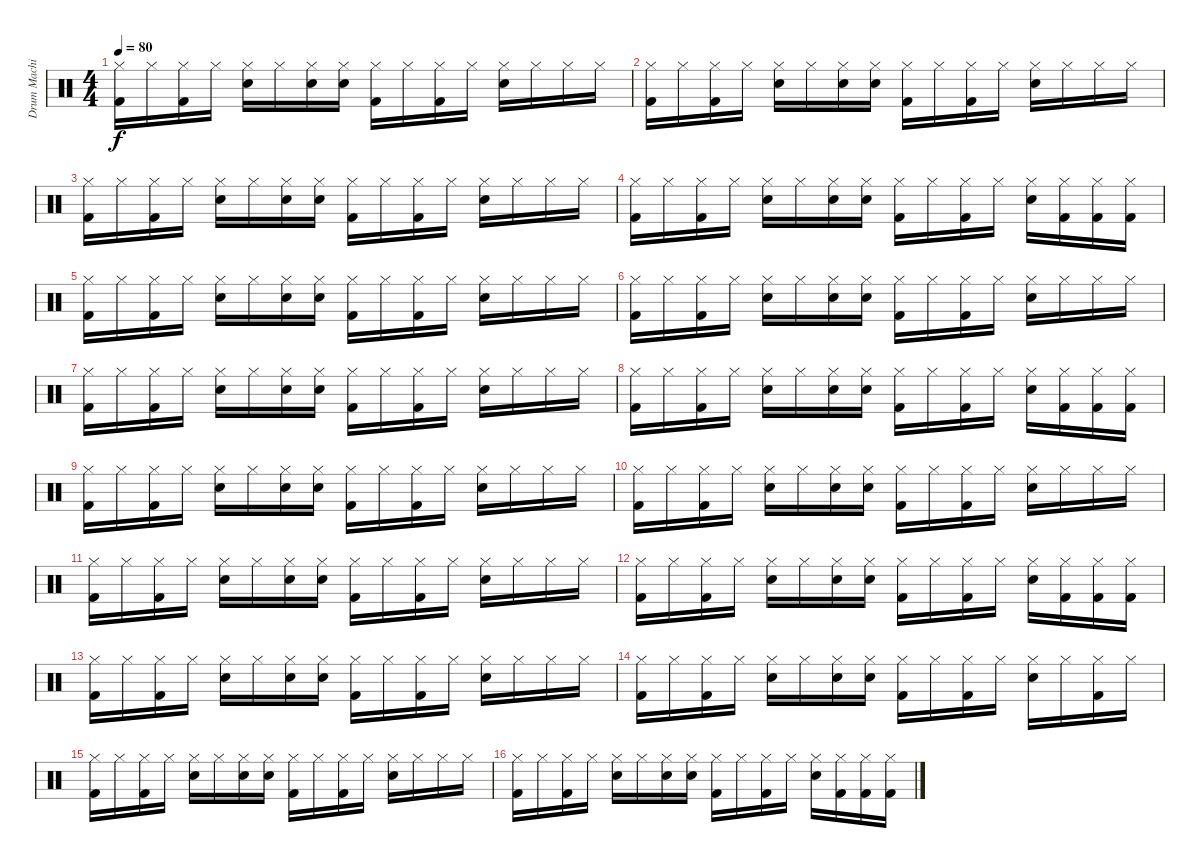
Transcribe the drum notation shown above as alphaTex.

\track ("Drum Machine" "Drum Machi") {instrument percussion}
\staff {score}
\articulation defaults
\ts (4 4)
\tempo 80
\clef neutral
\ks c
("Hi-Hat (closed)" "Kick (hit) 2").16{dy f} "Hi-Hat (closed)".16 ("Hi-Hat (closed)" "Kick (hit) 2").16 "Hi-Hat (closed)".16 ("Hi-Hat (closed)" "Electric Snare (hit)").16 "Hi-Hat (closed)".16 ("Hi-Hat (closed)" "Electric Snare (hit)").16 ("Hi-Hat (closed)" "Electric Snare (hit)").16 ("Hi-Hat (closed)" "Kick (hit) 2").16 "Hi-Hat (closed)".16 ("Hi-Hat (closed)" "Kick (hit) 2").16 "Hi-Hat (closed)".16 ("Hi-Hat (closed)" "Electric Snare (hit)").16 "Hi-Hat (closed)".16 "Hi-Hat (closed)".16 "Hi-Hat (closed)".16 |
("Hi-Hat (closed)" "Kick (hit) 2").16 "Hi-Hat (closed)".16 ("Hi-Hat (closed)" "Kick (hit) 2").16 "Hi-Hat (closed)".16 ("Hi-Hat (closed)" "Electric Snare (hit)").16 "Hi-Hat (closed)".16 ("Hi-Hat (closed)" "Electric Snare (hit)").16 ("Hi-Hat (closed)" "Electric Snare (hit)").16 ("Hi-Hat (closed)" "Kick (hit) 2").16 "Hi-Hat (closed)".16 ("Hi-Hat (closed)" "Kick (hit) 2").16 "Hi-Hat (closed)".16 ("Hi-Hat (closed)" "Electric Snare (hit)").16 "Hi-Hat (closed)".16 "Hi-Hat (closed)".16 "Hi-Hat (closed)".16 |
("Hi-Hat (closed)" "Kick (hit) 2").16 "Hi-Hat (closed)".16 ("Hi-Hat (closed)" "Kick (hit) 2").16 "Hi-Hat (closed)".16 ("Hi-Hat (closed)" "Electric Snare (hit)").16 "Hi-Hat (closed)".16 ("Hi-Hat (closed)" "Electric Snare (hit)").16 ("Hi-Hat (closed)" "Electric Snare (hit)").16 ("Hi-Hat (closed)" "Kick (hit) 2").16 "Hi-Hat (closed)".16 ("Hi-Hat (closed)" "Kick (hit) 2").16 "Hi-Hat (closed)".16 ("Hi-Hat (closed)" "Electric Snare (hit)").16 "Hi-Hat (closed)".16 "Hi-Hat (closed)".16 "Hi-Hat (closed)".16 |
("Hi-Hat (closed)" "Kick (hit) 2").16 "Hi-Hat (closed)".16 ("Hi-Hat (closed)" "Kick (hit) 2").16 "Hi-Hat (closed)".16 ("Hi-Hat (closed)" "Electric Snare (hit)").16 "Hi-Hat (closed)".16 ("Hi-Hat (closed)" "Electric Snare (hit)").16 ("Hi-Hat (closed)" "Electric Snare (hit)").16 ("Hi-Hat (closed)" "Kick (hit) 2").16 "Hi-Hat (closed)".16 ("Hi-Hat (closed)" "Kick (hit) 2").16 "Hi-Hat (closed)".16 ("Hi-Hat (closed)" "Electric Snare (hit)").16 ("Hi-Hat (closed)" "Kick (hit) 2").16 ("Hi-Hat (closed)" "Kick (hit) 2").16 ("Hi-Hat (closed)" "Kick (hit) 2").16 |
("Hi-Hat (closed)" "Kick (hit) 2").16 "Hi-Hat (closed)".16 ("Hi-Hat (closed)" "Kick (hit) 2").16 "Hi-Hat (closed)".16 ("Hi-Hat (closed)" "Electric Snare (hit)").16 "Hi-Hat (closed)".16 ("Hi-Hat (closed)" "Electric Snare (hit)").16 ("Hi-Hat (closed)" "Electric Snare (hit)").16 ("Hi-Hat (closed)" "Kick (hit) 2").16 "Hi-Hat (closed)".16 ("Hi-Hat (closed)" "Kick (hit) 2").16 "Hi-Hat (closed)".16 ("Hi-Hat (closed)" "Electric Snare (hit)").16 "Hi-Hat (closed)".16 "Hi-Hat (closed)".16 "Hi-Hat (closed)".16 |
("Hi-Hat (closed)" "Kick (hit) 2").16 "Hi-Hat (closed)".16 ("Hi-Hat (closed)" "Kick (hit) 2").16 "Hi-Hat (closed)".16 ("Hi-Hat (closed)" "Electric Snare (hit)").16 "Hi-Hat (closed)".16 ("Hi-Hat (closed)" "Electric Snare (hit)").16 ("Hi-Hat (closed)" "Electric Snare (hit)").16 ("Hi-Hat (closed)" "Kick (hit) 2").16 "Hi-Hat (closed)".16 ("Hi-Hat (closed)" "Kick (hit) 2").16 "Hi-Hat (closed)".16 ("Hi-Hat (closed)" "Electric Snare (hit)").16 "Hi-Hat (closed)".16 "Hi-Hat (closed)".16 "Hi-Hat (closed)".16 |
("Hi-Hat (closed)" "Kick (hit) 2").16 "Hi-Hat (closed)".16 ("Hi-Hat (closed)" "Kick (hit) 2").16 "Hi-Hat (closed)".16 ("Hi-Hat (closed)" "Electric Snare (hit)").16 "Hi-Hat (closed)".16 ("Hi-Hat (closed)" "Electric Snare (hit)").16 ("Hi-Hat (closed)" "Electric Snare (hit)").16 ("Hi-Hat (closed)" "Kick (hit) 2").16 "Hi-Hat (closed)".16 ("Hi-Hat (closed)" "Kick (hit) 2").16 "Hi-Hat (closed)".16 ("Hi-Hat (closed)" "Electric Snare (hit)").16 "Hi-Hat (closed)".16 "Hi-Hat (closed)".16 "Hi-Hat (closed)".16 |
("Hi-Hat (closed)" "Kick (hit) 2").16 "Hi-Hat (closed)".16 ("Hi-Hat (closed)" "Kick (hit) 2").16 "Hi-Hat (closed)".16 ("Hi-Hat (closed)" "Electric Snare (hit)").16 "Hi-Hat (closed)".16 ("Hi-Hat (closed)" "Electric Snare (hit)").16 ("Hi-Hat (closed)" "Electric Snare (hit)").16 ("Hi-Hat (closed)" "Kick (hit) 2").16 "Hi-Hat (closed)".16 ("Hi-Hat (closed)" "Kick (hit) 2").16 "Hi-Hat (closed)".16 ("Hi-Hat (closed)" "Electric Snare (hit)").16 ("Hi-Hat (closed)" "Kick (hit) 2").16 ("Hi-Hat (closed)" "Kick (hit) 2").16 ("Hi-Hat (closed)" "Kick (hit) 2").16 |
("Hi-Hat (closed)" "Kick (hit) 2").16 "Hi-Hat (closed)".16 ("Hi-Hat (closed)" "Kick (hit) 2").16 "Hi-Hat (closed)".16 ("Hi-Hat (closed)" "Electric Snare (hit)").16 "Hi-Hat (closed)".16 ("Hi-Hat (closed)" "Electric Snare (hit)").16 ("Hi-Hat (closed)" "Electric Snare (hit)").16 ("Hi-Hat (closed)" "Kick (hit) 2").16 "Hi-Hat (closed)".16 ("Hi-Hat (closed)" "Kick (hit) 2").16 "Hi-Hat (closed)".16 ("Hi-Hat (closed)" "Electric Snare (hit)").16 "Hi-Hat (closed)".16 "Hi-Hat (closed)".16 "Hi-Hat (closed)".16 |
("Hi-Hat (closed)" "Kick (hit) 2").16 "Hi-Hat (closed)".16 ("Hi-Hat (closed)" "Kick (hit) 2").16 "Hi-Hat (closed)".16 ("Hi-Hat (closed)" "Electric Snare (hit)").16 "Hi-Hat (closed)".16 ("Hi-Hat (closed)" "Electric Snare (hit)").16 ("Hi-Hat (closed)" "Electric Snare (hit)").16 ("Hi-Hat (closed)" "Kick (hit) 2").16 "Hi-Hat (closed)".16 ("Hi-Hat (closed)" "Kick (hit) 2").16 "Hi-Hat (closed)".16 ("Hi-Hat (closed)" "Electric Snare (hit)").16 "Hi-Hat (closed)".16 "Hi-Hat (closed)".16 "Hi-Hat (closed)".16 |
("Hi-Hat (closed)" "Kick (hit) 2").16 "Hi-Hat (closed)".16 ("Hi-Hat (closed)" "Kick (hit) 2").16 "Hi-Hat (closed)".16 ("Hi-Hat (closed)" "Electric Snare (hit)").16 "Hi-Hat (closed)".16 ("Hi-Hat (closed)" "Electric Snare (hit)").16 ("Hi-Hat (closed)" "Electric Snare (hit)").16 ("Hi-Hat (closed)" "Kick (hit) 2").16 "Hi-Hat (closed)".16 ("Hi-Hat (closed)" "Kick (hit) 2").16 "Hi-Hat (closed)".16 ("Hi-Hat (closed)" "Electric Snare (hit)").16 "Hi-Hat (closed)".16 "Hi-Hat (closed)".16 "Hi-Hat (closed)".16 |
("Hi-Hat (closed)" "Kick (hit) 2").16 "Hi-Hat (closed)".16 ("Hi-Hat (closed)" "Kick (hit) 2").16 "Hi-Hat (closed)".16 ("Hi-Hat (closed)" "Electric Snare (hit)").16 "Hi-Hat (closed)".16 ("Hi-Hat (closed)" "Electric Snare (hit)").16 ("Hi-Hat (closed)" "Electric Snare (hit)").16 ("Hi-Hat (closed)" "Kick (hit) 2").16 "Hi-Hat (closed)".16 ("Hi-Hat (closed)" "Kick (hit) 2").16 "Hi-Hat (closed)".16 ("Hi-Hat (closed)" "Electric Snare (hit)").16 ("Hi-Hat (closed)" "Kick (hit) 2").16 ("Hi-Hat (closed)" "Kick (hit) 2").16 ("Hi-Hat (closed)" "Kick (hit) 2").16 |
("Hi-Hat (closed)" "Kick (hit) 2").16 "Hi-Hat (closed)".16 ("Hi-Hat (closed)" "Kick (hit) 2").16 "Hi-Hat (closed)".16 ("Hi-Hat (closed)" "Electric Snare (hit)").16 "Hi-Hat (closed)".16 ("Hi-Hat (closed)" "Electric Snare (hit)").16 ("Hi-Hat (closed)" "Electric Snare (hit)").16 ("Hi-Hat (closed)" "Kick (hit) 2").16 "Hi-Hat (closed)".16 ("Hi-Hat (closed)" "Kick (hit) 2").16 "Hi-Hat (closed)".16 ("Hi-Hat (closed)" "Electric Snare (hit)").16 "Hi-Hat (closed)".16 "Hi-Hat (closed)".16 "Hi-Hat (closed)".16 |
("Hi-Hat (closed)" "Kick (hit) 2").16 "Hi-Hat (closed)".16 ("Hi-Hat (closed)" "Kick (hit) 2").16 "Hi-Hat (closed)".16 ("Hi-Hat (closed)" "Electric Snare (hit)").16 "Hi-Hat (closed)".16 ("Hi-Hat (closed)" "Electric Snare (hit)").16 ("Hi-Hat (closed)" "Electric Snare (hit)").16 ("Hi-Hat (closed)" "Kick (hit) 2").16 "Hi-Hat (closed)".16 ("Hi-Hat (closed)" "Kick (hit) 2").16 "Hi-Hat (closed)".16 ("Hi-Hat (closed)" "Electric Snare (hit)").16 "Hi-Hat (closed)".16 ("Hi-Hat (closed)" "Kick (hit) 2").16 "Hi-Hat (closed)".16 |
("Hi-Hat (closed)" "Kick (hit) 2").16 "Hi-Hat (closed)".16 ("Hi-Hat (closed)" "Kick (hit) 2").16 "Hi-Hat (closed)".16 ("Hi-Hat (closed)" "Electric Snare (hit)").16 "Hi-Hat (closed)".16 ("Hi-Hat (closed)" "Electric Snare (hit)").16 ("Hi-Hat (closed)" "Electric Snare (hit)").16 ("Hi-Hat (closed)" "Kick (hit) 2").16 "Hi-Hat (closed)".16 ("Hi-Hat (closed)" "Kick (hit) 2").16 "Hi-Hat (closed)".16 ("Hi-Hat (closed)" "Electric Snare (hit)").16 "Hi-Hat (closed)".16 "Hi-Hat (closed)".16 "Hi-Hat (closed)".16 |
("Hi-Hat (closed)" "Kick (hit) 2").16 "Hi-Hat (closed)".16 ("Hi-Hat (closed)" "Kick (hit) 2").16 "Hi-Hat (closed)".16 ("Hi-Hat (closed)" "Electric Snare (hit)").16 "Hi-Hat (closed)".16 ("Hi-Hat (closed)" "Electric Snare (hit)").16 ("Hi-Hat (closed)" "Electric Snare (hit)").16 ("Hi-Hat (closed)" "Kick (hit) 2").16 "Hi-Hat (closed)".16 ("Hi-Hat (closed)" "Kick (hit) 2").16 "Hi-Hat (closed)".16 ("Hi-Hat (closed)" "Electric Snare (hit)").16 ("Hi-Hat (closed)" "Kick (hit) 2").16 ("Hi-Hat (closed)" "Kick (hit) 2").16 ("Hi-Hat (closed)" "Kick (hit) 2").16
